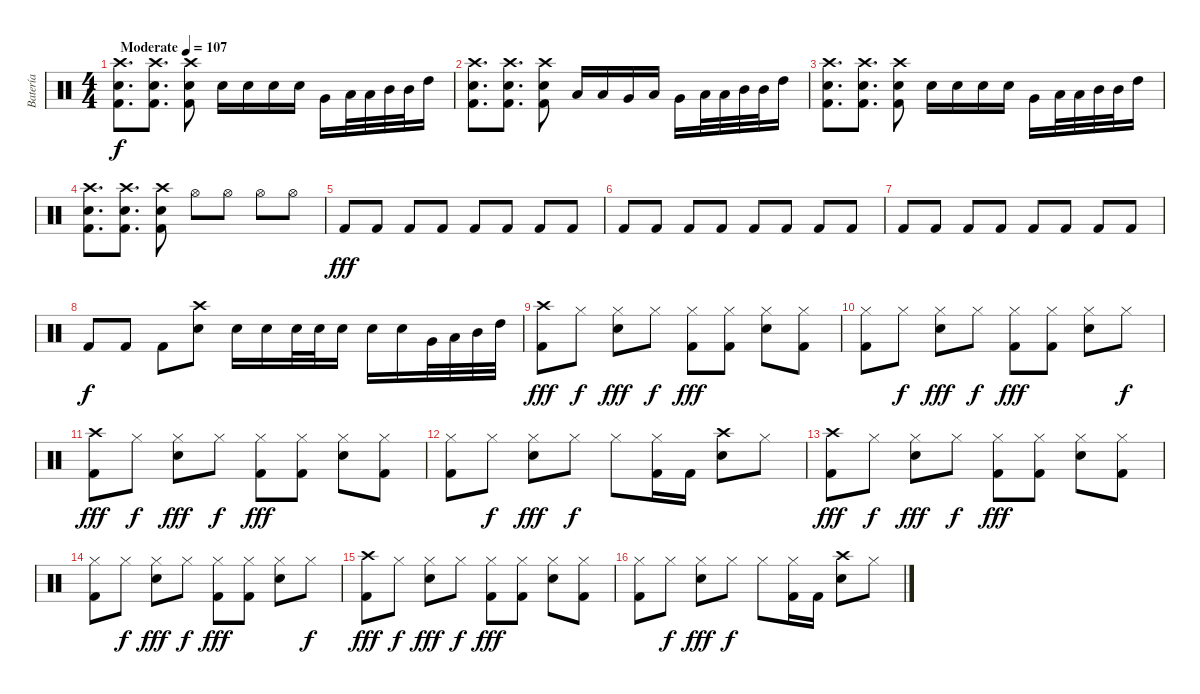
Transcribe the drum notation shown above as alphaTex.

\track ("Batería" "Batería") {instrument percussion}
\staff {score}
\articulation defaults
\ts (4 4)
\tempo (107 "Moderate")
\clef neutral
\ks c
("Crash high (hit)" "Kick (hit) 2" "Electric Snare (hit)").8{d dy f} ("Crash high (hit)" "Kick (hit) 2" "Electric Snare (hit)").8{d} ("Crash high (hit)" "Kick (hit) 2" "Electric Snare (hit)").8 "Electric Snare (hit)".16 "Electric Snare (hit)".16 "Electric Snare (hit)".16 "Electric Snare (hit)".16 "Very Low Tom (hit)".16 "Low Tom (hit)".32 "Low Tom (hit)".32 "Mid Tom (hit)".32 "Mid Tom (hit)".32 "High Tom (hit)".16 |
("Crash high (hit)" "Kick (hit) 2" "Electric Snare (hit)").8{d} ("Crash high (hit)" "Kick (hit) 2" "Electric Snare (hit)").8{d} ("Crash high (hit)" "Kick (hit) 2" "Electric Snare (hit)").8 "Low Tom (hit)".16 "Low Tom (hit)".16 "Very Low Tom (hit)".16 "Low Floor Tom (hit)".16 "Very Low Tom (hit)".16 "Low Tom (hit)".32 "Low Tom (hit)".32 "Mid Tom (hit)".32 "Mid Tom (hit)".32 "High Tom (hit)".16 |
("Crash high (hit)" "Kick (hit) 2" "Electric Snare (hit)").8{d} ("Crash high (hit)" "Kick (hit) 2" "Electric Snare (hit)").8{d} ("Crash high (hit)" "Kick (hit) 2" "Electric Snare (hit)").8 "Electric Snare (hit)".16 "Electric Snare (hit)".16 "Electric Snare (hit)".16 "Electric Snare (hit)".16 "Very Low Tom (hit)".16 "Low Tom (hit)".32 "Low Tom (hit)".32 "Mid Tom (hit)".32 "Mid Tom (hit)".32 "High Tom (hit)".16 |
("Crash high (hit)" "Kick (hit) 2" "Electric Snare (hit)").8{d} ("Crash high (hit)" "Kick (hit) 2" "Electric Snare (hit)").8{d} ("Crash high (hit)" "Kick (hit) 2" "Electric Snare (hit)").8 "Hi-Hat (open)".8 "Hi-Hat (open)".8 "Hi-Hat (open)".8 "Hi-Hat (open)".8 |
"Kick (hit) 2".8{dy fff} "Kick (hit) 2".8 "Kick (hit) 2".8 "Kick (hit) 2".8 "Kick (hit) 2".8 "Kick (hit) 2".8 "Kick (hit) 2".8 "Kick (hit) 2".8 |
"Kick (hit) 2".8 "Kick (hit) 2".8 "Kick (hit) 2".8 "Kick (hit) 2".8 "Kick (hit) 2".8 "Kick (hit) 2".8 "Kick (hit) 2".8 "Kick (hit) 2".8 |
"Kick (hit) 2".8 "Kick (hit) 2".8 "Kick (hit) 2".8 "Kick (hit) 2".8 "Kick (hit) 2".8 "Kick (hit) 2".8 "Kick (hit) 2".8 "Kick (hit) 2".8 |
"Kick (hit) 2".8{dy f} "Kick (hit) 2".8 "Kick (hit) 2".8 ("Crash high (hit)" "Electric Snare (hit)").8 "Electric Snare (hit)".16 "Electric Snare (hit)".16 "Electric Snare (hit)".32 "Electric Snare (hit)".32 "Electric Snare (hit)".16 "Electric Snare (hit)".16 "Electric Snare (hit)".16 "Very Low Tom (hit)".32 "Low Tom (hit)".32 "Mid Tom (hit)".32 "High Tom (hit)".32 |
("Crash high (hit)" "Kick (hit) 2").8{dy fff} "Hi-Hat (closed)".8{dy f} ("Hi-Hat (closed)" "Electric Snare (hit)").8{dy fff} "Hi-Hat (closed)".8{dy f} ("Hi-Hat (closed)" "Kick (hit) 2").8{dy fff} ("Hi-Hat (closed)" "Kick (hit) 2").8 ("Hi-Hat (closed)" "Electric Snare (hit)").8 ("Hi-Hat (closed)" "Kick (hit) 2").8 |
("Hi-Hat (closed)" "Kick (hit) 2").8 "Hi-Hat (closed)".8{dy f} ("Hi-Hat (closed)" "Electric Snare (hit)").8{dy fff} "Hi-Hat (closed)".8{dy f} ("Hi-Hat (closed)" "Kick (hit) 2").8{dy fff} ("Hi-Hat (closed)" "Kick (hit) 2").8 ("Hi-Hat (closed)" "Electric Snare (hit)").8 "Hi-Hat (closed)".8{dy f} |
("Crash high (hit)" "Kick (hit) 2").8{dy fff} "Hi-Hat (closed)".8{dy f} ("Hi-Hat (closed)" "Electric Snare (hit)").8{dy fff} "Hi-Hat (closed)".8{dy f} ("Hi-Hat (closed)" "Kick (hit) 2").8{dy fff} ("Hi-Hat (closed)" "Kick (hit) 2").8 ("Hi-Hat (closed)" "Electric Snare (hit)").8 ("Hi-Hat (closed)" "Kick (hit) 2").8 |
("Hi-Hat (closed)" "Kick (hit) 2").8 "Hi-Hat (closed)".8{dy f} ("Hi-Hat (closed)" "Electric Snare (hit)").8{dy fff} "Hi-Hat (closed)".8{dy f} "Hi-Hat (closed)".8 ("Hi-Hat (closed)" "Kick (hit) 2").16 "Kick (hit) 2".16 ("Crash high (hit)" "Electric Snare (hit)").8 "Hi-Hat (closed)".8 |
("Crash high (hit)" "Kick (hit) 2").8{dy fff} "Hi-Hat (closed)".8{dy f} ("Hi-Hat (closed)" "Electric Snare (hit)").8{dy fff} "Hi-Hat (closed)".8{dy f} ("Hi-Hat (closed)" "Kick (hit) 2").8{dy fff} ("Hi-Hat (closed)" "Kick (hit) 2").8 ("Hi-Hat (closed)" "Electric Snare (hit)").8 ("Hi-Hat (closed)" "Kick (hit) 2").8 |
("Hi-Hat (closed)" "Kick (hit) 2").8 "Hi-Hat (closed)".8{dy f} ("Hi-Hat (closed)" "Electric Snare (hit)").8{dy fff} "Hi-Hat (closed)".8{dy f} ("Hi-Hat (closed)" "Kick (hit) 2").8{dy fff} ("Hi-Hat (closed)" "Kick (hit) 2").8 ("Hi-Hat (closed)" "Electric Snare (hit)").8 "Hi-Hat (closed)".8{dy f} |
("Crash high (hit)" "Kick (hit) 2").8{dy fff} "Hi-Hat (closed)".8{dy f} ("Hi-Hat (closed)" "Electric Snare (hit)").8{dy fff} "Hi-Hat (closed)".8{dy f} ("Hi-Hat (closed)" "Kick (hit) 2").8{dy fff} ("Hi-Hat (closed)" "Kick (hit) 2").8 ("Hi-Hat (closed)" "Electric Snare (hit)").8 ("Hi-Hat (closed)" "Kick (hit) 2").8 |
("Hi-Hat (closed)" "Kick (hit) 2").8 "Hi-Hat (closed)".8{dy f} ("Hi-Hat (closed)" "Electric Snare (hit)").8{dy fff} "Hi-Hat (closed)".8{dy f} "Hi-Hat (closed)".8 ("Hi-Hat (closed)" "Kick (hit) 2").16 "Kick (hit) 2".16 ("Crash high (hit)" "Electric Snare (hit)").8 "Hi-Hat (closed)".8
